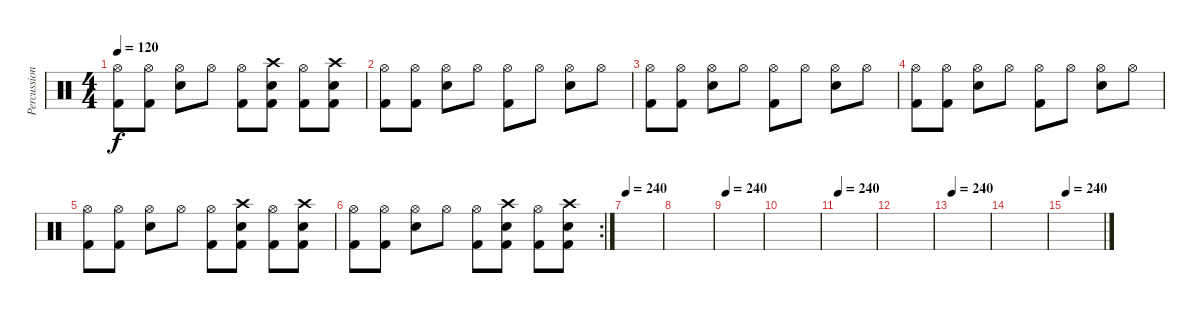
\track ("Percussion" "Percussion") {instrument percussion}
\staff {score}
\articulation defaults
\ts (4 4)
\tempo 120
\clef neutral
\ks c
("Hi-Hat (open)" "Kick (hit) 2").8{dy f} ("Hi-Hat (open)" "Kick (hit) 2").8 ("Hi-Hat (open)" "Snare (hit) 2").8 "Hi-Hat (open)".8 ("Hi-Hat (open)" "Kick (hit) 2").8 ("Crash high (hit)" "Snare (hit) 2" "Kick (hit) 2").8 ("Hi-Hat (open)" "Kick (hit) 2").8 ("Crash high (hit)" "Snare (hit) 2" "Kick (hit) 2").8 |
("Hi-Hat (open)" "Kick (hit) 2").8 ("Hi-Hat (open)" "Kick (hit) 2").8 ("Hi-Hat (open)" "Snare (hit) 2").8 "Hi-Hat (open)".8 ("Hi-Hat (open)" "Kick (hit) 2").8 "Hi-Hat (open)".8 ("Hi-Hat (open)" "Snare (hit) 2").8 "Hi-Hat (open)".8 |
("Hi-Hat (open)" "Kick (hit) 2").8 ("Hi-Hat (open)" "Kick (hit) 2").8 ("Hi-Hat (open)" "Snare (hit) 2").8 "Hi-Hat (open)".8 ("Hi-Hat (open)" "Kick (hit) 2").8 "Hi-Hat (open)".8 ("Hi-Hat (open)" "Snare (hit) 2").8 "Hi-Hat (open)".8 |
("Hi-Hat (open)" "Kick (hit) 2").8 ("Hi-Hat (open)" "Kick (hit) 2").8 ("Hi-Hat (open)" "Snare (hit) 2").8 "Hi-Hat (open)".8 ("Hi-Hat (open)" "Kick (hit) 2").8 "Hi-Hat (open)".8 ("Hi-Hat (open)" "Snare (hit) 2").8 "Hi-Hat (open)".8 |
("Hi-Hat (open)" "Kick (hit) 2").8 ("Hi-Hat (open)" "Kick (hit) 2").8 ("Hi-Hat (open)" "Snare (hit) 2").8 "Hi-Hat (open)".8 ("Hi-Hat (open)" "Kick (hit) 2").8 ("Crash high (hit)" "Snare (hit) 2" "Kick (hit) 2").8 ("Hi-Hat (open)" "Kick (hit) 2").8 ("Crash high (hit)" "Snare (hit) 2" "Kick (hit) 2").8 |
\rc 2
("Hi-Hat (open)" "Kick (hit) 2").8 ("Hi-Hat (open)" "Kick (hit) 2").8 ("Hi-Hat (open)" "Snare (hit) 2").8 "Hi-Hat (open)".8 ("Hi-Hat (open)" "Kick (hit) 2").8 ("Crash high (hit)" "Snare (hit) 2" "Kick (hit) 2").8 ("Hi-Hat (open)" "Kick (hit) 2").8 ("Crash high (hit)" "Snare (hit) 2" "Kick (hit) 2").8 |
\tempo 240
|
|
\tempo 240
|
|
\tempo 240
|
|
\tempo 240
|
|
\tempo 240
